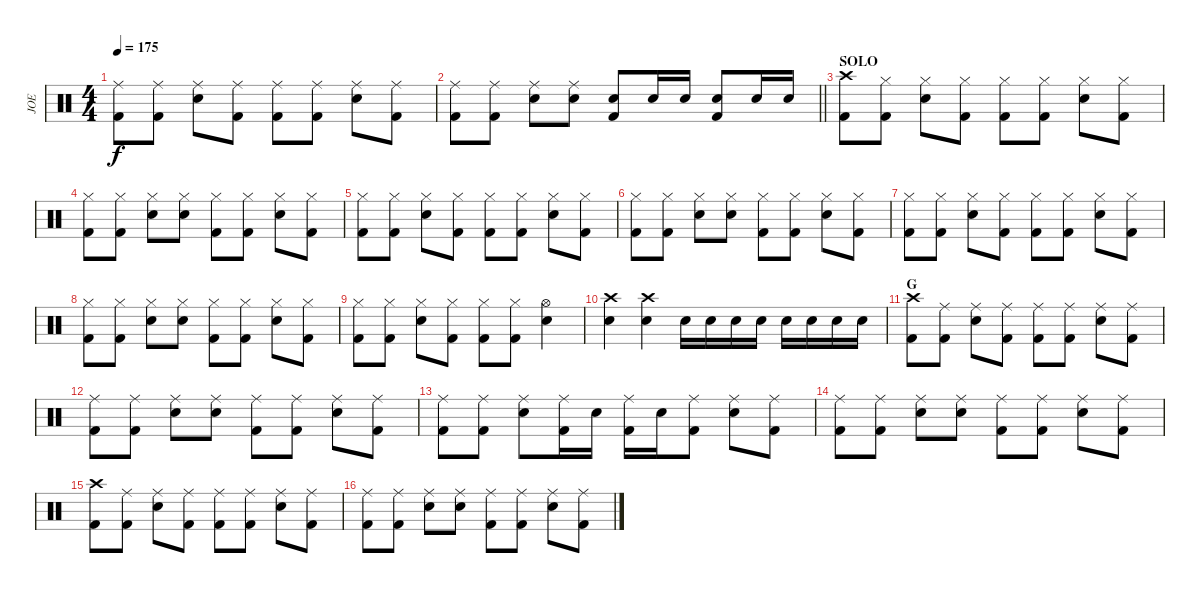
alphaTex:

\track ("JOE" "JOE") {instrument percussion}
\staff {score}
\articulation defaults
\ts (4 4)
\tempo 175
\clef neutral
\ks c
("Ride (middle)" "Kick (hit) 2").8{dy f} ("Ride (middle)" "Kick (hit) 2").8 ("Ride (middle)" "Snare (hit) 2").8 ("Ride (middle)" "Kick (hit) 2").8 ("Ride (middle)" "Kick (hit) 2").8 ("Ride (middle)" "Kick (hit) 2").8 ("Ride (middle)" "Snare (hit) 2").8 ("Ride (middle)" "Kick (hit) 2").8 |
\barLineRight lightlight
("Ride (middle)" "Kick (hit) 2").8 ("Ride (middle)" "Kick (hit) 2").8 ("Ride (middle)" "Snare (hit) 2").8 ("Ride (middle)" "Snare (hit) 2").8 ("Snare (hit) 2" "Kick (hit) 2").8 "Snare (hit) 2".16 "Snare (hit) 2".16 ("Snare (hit) 2" "Kick (hit) 2").8 "Snare (hit) 2".16 "Snare (hit) 2".16 |
\section ("" "SOLO")
("Crash high (hit)" "Kick (hit) 2").8 ("Hi-Hat (closed)" "Kick (hit) 2").8 ("Hi-Hat (closed)" "Snare (hit) 2").8 ("Hi-Hat (closed)" "Kick (hit) 2").8 ("Hi-Hat (closed)" "Kick (hit) 2").8 ("Hi-Hat (closed)" "Kick (hit) 2").8 ("Hi-Hat (closed)" "Snare (hit) 2").8 ("Hi-Hat (closed)" "Kick (hit) 2").8 |
("Hi-Hat (closed)" "Kick (hit) 2").8 ("Hi-Hat (closed)" "Kick (hit) 2").8 ("Hi-Hat (closed)" "Snare (hit) 2").8 ("Hi-Hat (closed)" "Snare (hit) 2").8 ("Hi-Hat (closed)" "Kick (hit) 2").8 ("Hi-Hat (closed)" "Kick (hit) 2").8 ("Hi-Hat (closed)" "Snare (hit) 2").8 ("Hi-Hat (closed)" "Kick (hit) 2").8 |
("Hi-Hat (closed)" "Kick (hit) 2").8 ("Hi-Hat (closed)" "Kick (hit) 2").8 ("Hi-Hat (closed)" "Snare (hit) 2").8 ("Hi-Hat (closed)" "Kick (hit) 2").8 ("Hi-Hat (closed)" "Kick (hit) 2").8 ("Hi-Hat (closed)" "Kick (hit) 2").8 ("Hi-Hat (closed)" "Snare (hit) 2").8 ("Hi-Hat (closed)" "Kick (hit) 2").8 |
("Hi-Hat (closed)" "Kick (hit) 2").8 ("Hi-Hat (closed)" "Kick (hit) 2").8 ("Hi-Hat (closed)" "Snare (hit) 2").8 ("Hi-Hat (closed)" "Snare (hit) 2").8 ("Hi-Hat (closed)" "Kick (hit) 2").8 ("Hi-Hat (closed)" "Kick (hit) 2").8 ("Hi-Hat (closed)" "Snare (hit) 2").8 ("Hi-Hat (closed)" "Kick (hit) 2").8 |
("Hi-Hat (closed)" "Kick (hit) 2").8 ("Hi-Hat (closed)" "Kick (hit) 2").8 ("Hi-Hat (closed)" "Snare (hit) 2").8 ("Hi-Hat (closed)" "Kick (hit) 2").8 ("Hi-Hat (closed)" "Kick (hit) 2").8 ("Hi-Hat (closed)" "Kick (hit) 2").8 ("Hi-Hat (closed)" "Snare (hit) 2").8 ("Hi-Hat (closed)" "Kick (hit) 2").8 |
("Hi-Hat (closed)" "Kick (hit) 2").8 ("Hi-Hat (closed)" "Kick (hit) 2").8 ("Hi-Hat (closed)" "Snare (hit) 2").8 ("Hi-Hat (closed)" "Snare (hit) 2").8 ("Hi-Hat (closed)" "Kick (hit) 2").8 ("Hi-Hat (closed)" "Kick (hit) 2").8 ("Hi-Hat (closed)" "Snare (hit) 2").8 ("Hi-Hat (closed)" "Kick (hit) 2").8 |
("Hi-Hat (closed)" "Kick (hit) 2").8 ("Hi-Hat (closed)" "Kick (hit) 2").8 ("Hi-Hat (closed)" "Snare (hit) 2").8 ("Hi-Hat (closed)" "Kick (hit) 2").8 ("Hi-Hat (closed)" "Kick (hit) 2").8 ("Hi-Hat (closed)" "Kick (hit) 2").8 ("Hi-Hat (open)" "Snare (hit) 2").4 |
("Crash high (hit)" "Snare (hit) 2").4 ("Crash high (hit)" "Snare (hit) 2").4 "Snare (hit) 2".16 "Snare (hit) 2".16 "Snare (hit) 2".16 "Snare (hit) 2".16 "Snare (hit) 2".16 "Snare (hit) 2".16 "Snare (hit) 2".16 "Snare (hit) 2".16 |
\section ("" "G")
("Crash high (hit)" "Kick (hit) 2").8 ("Ride (middle)" "Kick (hit) 2").8 ("Ride (middle)" "Snare (hit) 2").8 ("Ride (middle)" "Kick (hit) 2").8 ("Ride (middle)" "Kick (hit) 2").8 ("Ride (middle)" "Kick (hit) 2").8 ("Ride (middle)" "Snare (hit) 2").8 ("Ride (middle)" "Kick (hit) 2").8 |
("Ride (middle)" "Kick (hit) 2").8 ("Ride (middle)" "Kick (hit) 2").8 ("Ride (middle)" "Snare (hit) 2").8 ("Ride (middle)" "Snare (hit) 2").8 ("Ride (middle)" "Kick (hit) 2").8 ("Ride (middle)" "Kick (hit) 2").8 ("Ride (middle)" "Snare (hit) 2").8 ("Ride (middle)" "Kick (hit) 2").8 |
("Ride (middle)" "Kick (hit) 2").8 ("Ride (middle)" "Kick (hit) 2").8 ("Ride (middle)" "Snare (hit) 2").8 ("Ride (middle)" "Kick (hit) 2").16 "Snare (hit) 2".16 ("Ride (middle)" "Kick (hit) 2").16 "Snare (hit) 2".16 ("Ride (middle)" "Kick (hit) 2").8 ("Ride (middle)" "Snare (hit) 2").8 ("Ride (middle)" "Kick (hit) 2").8 |
("Ride (middle)" "Kick (hit) 2").8 ("Ride (middle)" "Kick (hit) 2").8 ("Ride (middle)" "Snare (hit) 2").8 ("Ride (middle)" "Snare (hit) 2").8 ("Ride (middle)" "Kick (hit) 2").8 ("Ride (middle)" "Kick (hit) 2").8 ("Ride (middle)" "Snare (hit) 2").8 ("Ride (middle)" "Kick (hit) 2").8 |
("Crash high (hit)" "Kick (hit) 2").8 ("Ride (middle)" "Kick (hit) 2").8 ("Ride (middle)" "Snare (hit) 2").8 ("Ride (middle)" "Kick (hit) 2").8 ("Ride (middle)" "Kick (hit) 2").8 ("Ride (middle)" "Kick (hit) 2").8 ("Ride (middle)" "Snare (hit) 2").8 ("Ride (middle)" "Kick (hit) 2").8 |
("Ride (middle)" "Kick (hit) 2").8 ("Ride (middle)" "Kick (hit) 2").8 ("Ride (middle)" "Snare (hit) 2").8 ("Ride (middle)" "Snare (hit) 2").8 ("Ride (middle)" "Kick (hit) 2").8 ("Ride (middle)" "Kick (hit) 2").8 ("Ride (middle)" "Snare (hit) 2").8 ("Ride (middle)" "Kick (hit) 2").8
